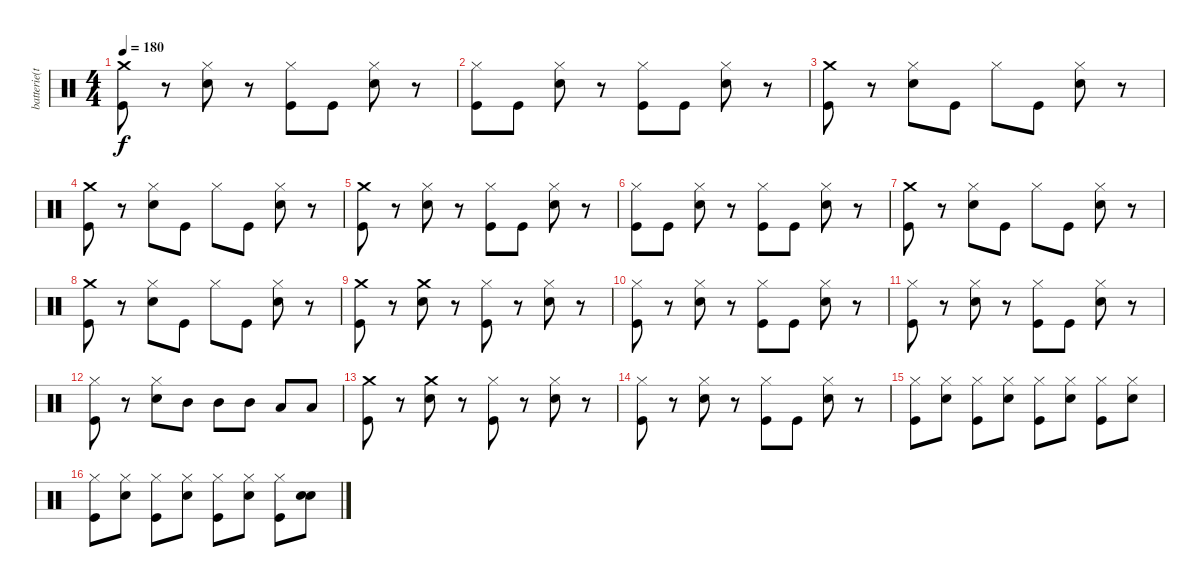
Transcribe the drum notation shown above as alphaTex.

\track ("batterie(topper)" "batterie(t") {instrument percussion}
\staff {score}
\articulation defaults
\ts (4 4)
\tempo 180
\clef neutral
\ks c
("Crash medium (hit)" "Kick (hit)").8{dy f} r.8 ("Hi-Hat (closed)" "Snare (hit) 2").8 r.8 ("Hi-Hat (closed)" "Kick (hit)").8 "Kick (hit)".8 ("Hi-Hat (closed)" "Snare (hit) 2").8 r.8 |
("Hi-Hat (closed)" "Kick (hit)").8 "Kick (hit)".8 ("Hi-Hat (closed)" "Snare (hit) 2").8 r.8 ("Hi-Hat (closed)" "Kick (hit)").8 "Kick (hit)".8 ("Hi-Hat (closed)" "Snare (hit) 2").8 r.8 |
("Crash medium (hit)" "Kick (hit)").8 r.8 ("Hi-Hat (closed)" "Snare (hit) 2").8 "Kick (hit)".8 "Hi-Hat (closed)".8 "Kick (hit)".8 ("Hi-Hat (closed)" "Snare (hit) 2").8 r.8 |
("Crash medium (hit)" "Kick (hit)").8 r.8 ("Hi-Hat (closed)" "Snare (hit) 2").8 "Kick (hit)".8 "Hi-Hat (closed)".8 "Kick (hit)".8 ("Hi-Hat (closed)" "Snare (hit) 2").8 r.8 |
("Crash medium (hit)" "Kick (hit)").8 r.8 ("Hi-Hat (closed)" "Snare (hit) 2").8 r.8 ("Hi-Hat (closed)" "Kick (hit)").8 "Kick (hit)".8 ("Hi-Hat (closed)" "Snare (hit) 2").8 r.8 |
("Hi-Hat (closed)" "Kick (hit)").8 "Kick (hit)".8 ("Hi-Hat (closed)" "Snare (hit) 2").8 r.8 ("Hi-Hat (closed)" "Kick (hit)").8 "Kick (hit)".8 ("Hi-Hat (closed)" "Snare (hit) 2").8 r.8 |
("Crash medium (hit)" "Kick (hit)").8 r.8 ("Hi-Hat (closed)" "Snare (hit) 2").8 "Kick (hit)".8 "Hi-Hat (closed)".8 "Kick (hit)".8 ("Hi-Hat (closed)" "Snare (hit) 2").8 r.8 |
("Crash medium (hit)" "Kick (hit)").8 r.8 ("Hi-Hat (closed)" "Snare (hit) 2").8 "Kick (hit)".8 "Hi-Hat (closed)".8 "Kick (hit)".8 ("Hi-Hat (closed)" "Snare (hit) 2").8 r.8 |
("Crash medium (hit)" "Kick (hit)").8 r.8 ("Crash medium (hit)" "Snare (hit) 2").8 r.8 ("Hi-Hat (closed)" "Kick (hit)").8 r.8 ("Hi-Hat (closed)" "Snare (hit) 2").8 r.8 |
("Hi-Hat (closed)" "Kick (hit)").8 r.8 ("Hi-Hat (closed)" "Snare (hit) 2").8 r.8 ("Hi-Hat (closed)" "Kick (hit)").8 "Kick (hit)".8 ("Hi-Hat (closed)" "Snare (hit) 2").8 r.8 |
("Hi-Hat (closed)" "Kick (hit)").8 r.8 ("Hi-Hat (closed)" "Snare (hit) 2").8 r.8 ("Hi-Hat (closed)" "Kick (hit)").8 "Kick (hit)".8 ("Hi-Hat (closed)" "Snare (hit) 2").8 r.8 |
("Hi-Hat (closed)" "Kick (hit)").8 r.8 ("Hi-Hat (closed)" "Snare (hit) 2").8 "Mid Tom (hit)".8 "Mid Tom (hit)".8 "Mid Tom (hit)".8 "Low Tom (hit)".8 "Low Tom (hit)".8 |
("Crash medium (hit)" "Kick (hit)").8 r.8 ("Crash medium (hit)" "Snare (hit) 2").8 r.8 ("Hi-Hat (closed)" "Kick (hit)").8 r.8 ("Hi-Hat (closed)" "Snare (hit) 2").8 r.8 |
("Hi-Hat (closed)" "Kick (hit)").8 r.8 ("Hi-Hat (closed)" "Snare (hit) 2").8 r.8 ("Hi-Hat (closed)" "Kick (hit)").8 "Kick (hit)".8 ("Hi-Hat (closed)" "Snare (hit) 2").8 r.8 |
("Hi-Hat (closed)" "Kick (hit)").8 ("Hi-Hat (closed)" "Snare (hit) 2").8 ("Hi-Hat (closed)" "Kick (hit)").8 ("Hi-Hat (closed)" "Snare (hit) 2").8 ("Hi-Hat (closed)" "Kick (hit)").8 ("Hi-Hat (closed)" "Snare (hit) 2").8 ("Hi-Hat (closed)" "Kick (hit)").8 ("Hi-Hat (closed)" "Snare (hit) 2").8 |
("Hi-Hat (closed)" "Kick (hit)").8 ("Hi-Hat (closed)" "Snare (hit) 2").8 ("Hi-Hat (closed)" "Kick (hit)").8 ("Hi-Hat (closed)" "Snare (hit) 2").8 ("Hi-Hat (closed)" "Kick (hit)").8 ("Hi-Hat (closed)" "Snare (hit) 2").8 ("Hi-Hat (closed)" "Kick (hit)").8 ("Snare (hit) 2" "Snare (hit) 2").8
